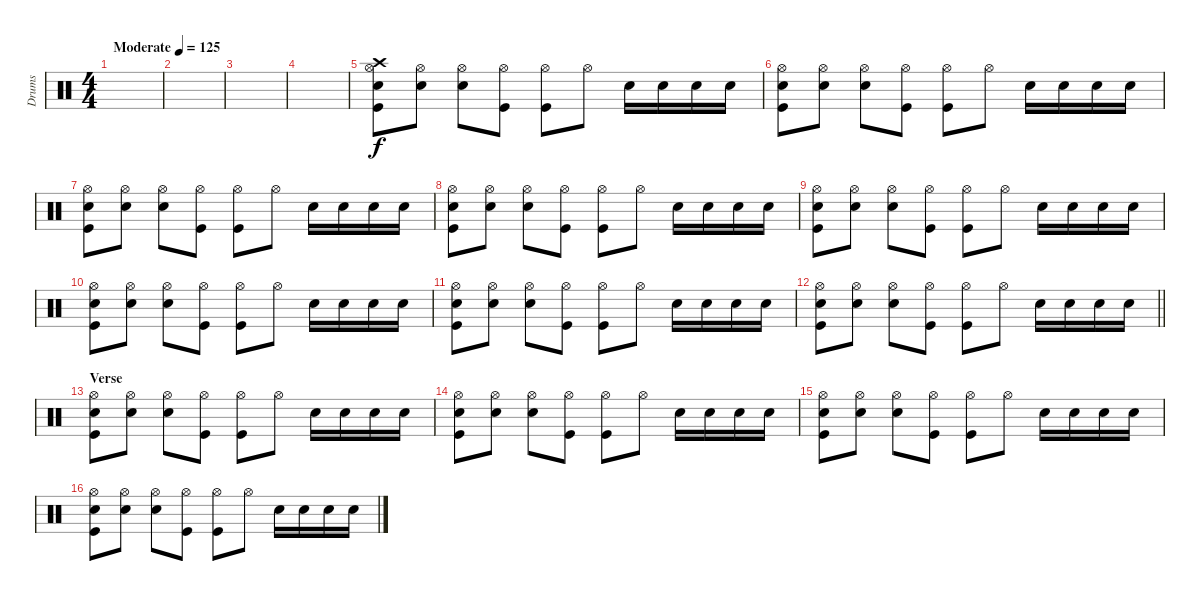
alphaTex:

\track ("Drums" "Drums") {instrument percussion}
\staff {score}
\articulation defaults
\ts (4 4)
\tempo (125 "Moderate")
\clef neutral
\ks c
|
|
|
|
("Hi-Hat (open)" "Crash high (hit)" "Electric Snare (hit)" "Kick (hit)").8 ("Hi-Hat (open)" "Electric Snare (hit)").8 ("Hi-Hat (open)" "Electric Snare (hit)").8 ("Hi-Hat (open)" "Kick (hit)").8 ("Hi-Hat (open)" "Kick (hit)").8 "Hi-Hat (open)".8 "Electric Snare (hit)".16 "Electric Snare (hit)".16 "Electric Snare (hit)".16 "Electric Snare (hit)".16 |
("Hi-Hat (open)" "Electric Snare (hit)" "Kick (hit)").8 ("Hi-Hat (open)" "Electric Snare (hit)").8 ("Hi-Hat (open)" "Electric Snare (hit)").8 ("Hi-Hat (open)" "Kick (hit)").8 ("Hi-Hat (open)" "Kick (hit)").8 "Hi-Hat (open)".8 "Electric Snare (hit)".16 "Electric Snare (hit)".16 "Electric Snare (hit)".16 "Electric Snare (hit)".16 |
("Hi-Hat (open)" "Electric Snare (hit)" "Kick (hit)").8 ("Hi-Hat (open)" "Electric Snare (hit)").8 ("Hi-Hat (open)" "Electric Snare (hit)").8 ("Hi-Hat (open)" "Kick (hit)").8 ("Hi-Hat (open)" "Kick (hit)").8 "Hi-Hat (open)".8 "Electric Snare (hit)".16 "Electric Snare (hit)".16 "Electric Snare (hit)".16 "Electric Snare (hit)".16 |
("Hi-Hat (open)" "Electric Snare (hit)" "Kick (hit)").8 ("Hi-Hat (open)" "Electric Snare (hit)").8 ("Hi-Hat (open)" "Electric Snare (hit)").8 ("Hi-Hat (open)" "Kick (hit)").8 ("Hi-Hat (open)" "Kick (hit)").8 "Hi-Hat (open)".8 "Electric Snare (hit)".16 "Electric Snare (hit)".16 "Electric Snare (hit)".16 "Electric Snare (hit)".16 |
("Hi-Hat (open)" "Electric Snare (hit)" "Kick (hit)").8 ("Hi-Hat (open)" "Electric Snare (hit)").8 ("Hi-Hat (open)" "Electric Snare (hit)").8 ("Hi-Hat (open)" "Kick (hit)").8 ("Hi-Hat (open)" "Kick (hit)").8 "Hi-Hat (open)".8 "Electric Snare (hit)".16 "Electric Snare (hit)".16 "Electric Snare (hit)".16 "Electric Snare (hit)".16 |
("Hi-Hat (open)" "Electric Snare (hit)" "Kick (hit)").8 ("Hi-Hat (open)" "Electric Snare (hit)").8 ("Hi-Hat (open)" "Electric Snare (hit)").8 ("Hi-Hat (open)" "Kick (hit)").8 ("Hi-Hat (open)" "Kick (hit)").8 "Hi-Hat (open)".8 "Electric Snare (hit)".16 "Electric Snare (hit)".16 "Electric Snare (hit)".16 "Electric Snare (hit)".16 |
("Hi-Hat (open)" "Electric Snare (hit)" "Kick (hit)").8 ("Hi-Hat (open)" "Electric Snare (hit)").8 ("Hi-Hat (open)" "Electric Snare (hit)").8 ("Hi-Hat (open)" "Kick (hit)").8 ("Hi-Hat (open)" "Kick (hit)").8 "Hi-Hat (open)".8 "Electric Snare (hit)".16 "Electric Snare (hit)".16 "Electric Snare (hit)".16 "Electric Snare (hit)".16 |
\barLineRight lightlight
("Hi-Hat (open)" "Electric Snare (hit)" "Kick (hit)").8 ("Hi-Hat (open)" "Electric Snare (hit)").8 ("Hi-Hat (open)" "Electric Snare (hit)").8 ("Hi-Hat (open)" "Kick (hit)").8 ("Hi-Hat (open)" "Kick (hit)").8 "Hi-Hat (open)".8 "Electric Snare (hit)".16 "Electric Snare (hit)".16 "Electric Snare (hit)".16 "Electric Snare (hit)".16 |
\section ("" "Verse")
("Hi-Hat (open)" "Electric Snare (hit)" "Kick (hit)").8 ("Hi-Hat (open)" "Electric Snare (hit)").8 ("Hi-Hat (open)" "Electric Snare (hit)").8 ("Hi-Hat (open)" "Kick (hit)").8 ("Hi-Hat (open)" "Kick (hit)").8 "Hi-Hat (open)".8 "Electric Snare (hit)".16 "Electric Snare (hit)".16 "Electric Snare (hit)".16 "Electric Snare (hit)".16 |
("Hi-Hat (open)" "Electric Snare (hit)" "Kick (hit)").8 ("Hi-Hat (open)" "Electric Snare (hit)").8 ("Hi-Hat (open)" "Electric Snare (hit)").8 ("Hi-Hat (open)" "Kick (hit)").8 ("Hi-Hat (open)" "Kick (hit)").8 "Hi-Hat (open)".8 "Electric Snare (hit)".16 "Electric Snare (hit)".16 "Electric Snare (hit)".16 "Electric Snare (hit)".16 |
("Hi-Hat (open)" "Electric Snare (hit)" "Kick (hit)").8 ("Hi-Hat (open)" "Electric Snare (hit)").8 ("Hi-Hat (open)" "Electric Snare (hit)").8 ("Hi-Hat (open)" "Kick (hit)").8 ("Hi-Hat (open)" "Kick (hit)").8 "Hi-Hat (open)".8 "Electric Snare (hit)".16 "Electric Snare (hit)".16 "Electric Snare (hit)".16 "Electric Snare (hit)".16 |
("Hi-Hat (open)" "Electric Snare (hit)" "Kick (hit)").8 ("Hi-Hat (open)" "Electric Snare (hit)").8 ("Hi-Hat (open)" "Electric Snare (hit)").8 ("Hi-Hat (open)" "Kick (hit)").8 ("Hi-Hat (open)" "Kick (hit)").8 "Hi-Hat (open)".8 "Electric Snare (hit)".16 "Electric Snare (hit)".16 "Electric Snare (hit)".16 "Electric Snare (hit)".16
